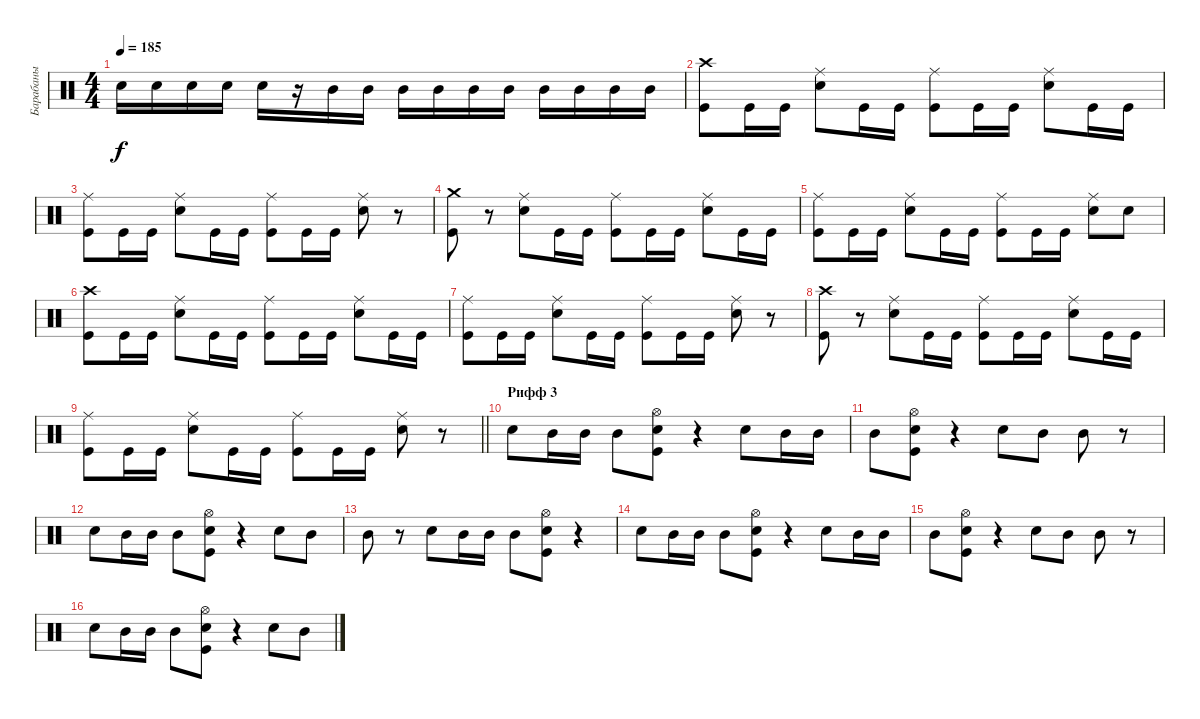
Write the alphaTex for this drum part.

\track ("Барабаны" "Барабаны") {instrument percussion}
\staff {score}
\articulation defaults
\ts (4 4)
\tempo 185
\clef neutral
\ks c "Snare (hit) 2".16{dy f} "Snare (hit) 2".16 "Snare (hit) 2".16 "Snare (hit) 2".16 "Snare (hit) 2".16
r.16 "Mid Tom (hit)".16 "Mid Tom (hit)".16 "Mid Tom (hit)".16 "Mid Tom (hit)".16 "Mid Tom (hit)".16 "Mid Tom (hit)".16 "Mid Tom (hit)".16 "Mid Tom (hit)".16 "Mid Tom (hit)".16 "Mid Tom (hit)".16 |
("Kick (hit)" "Crash high (hit)").8 "Kick (hit)".16 "Kick (hit)".16 ("Snare (hit) 2" "Ride (middle)").8 "Kick (hit)".16 "Kick (hit)".16 ("Kick (hit)" "Ride (middle)").8 "Kick (hit)".16 "Kick (hit)".16 ("Snare (hit) 2" "Ride (middle)").8 "Kick (hit)".16 "Kick (hit)".16 |
("Kick (hit)" "Ride (middle)").8 "Kick (hit)".16 "Kick (hit)".16 ("Snare (hit) 2" "Ride (middle)").8 "Kick (hit)".16 "Kick (hit)".16 ("Kick (hit)" "Ride (middle)").8 "Kick (hit)".16 "Kick (hit)".16 ("Snare (hit) 2" "Ride (middle)").8 r.8 |
("Kick (hit)" "Crash medium (hit)").8 r.8 ("Snare (hit) 2" "Ride (middle)").8 "Kick (hit)".16 "Kick (hit)".16 ("Kick (hit)" "Ride (middle)").8 "Kick (hit)".16 "Kick (hit)".16 ("Snare (hit) 2" "Ride (middle)").8 "Kick (hit)".16 "Kick (hit)".16 |
("Kick (hit)" "Ride (middle)").8 "Kick (hit)".16 "Kick (hit)".16 ("Snare (hit) 2" "Ride (middle)").8 "Kick (hit)".16 "Kick (hit)".16 ("Kick (hit)" "Ride (middle)").8 "Kick (hit)".16 "Kick (hit)".16 ("Snare (hit) 2" "Ride (middle)").8 "Snare (hit) 2".8 |
("Kick (hit)" "Crash high (hit)").8 "Kick (hit)".16 "Kick (hit)".16 ("Snare (hit) 2" "Ride (middle)").8 "Kick (hit)".16 "Kick (hit)".16 ("Kick (hit)" "Ride (middle)").8 "Kick (hit)".16 "Kick (hit)".16 ("Snare (hit) 2" "Ride (middle)").8 "Kick (hit)".16 "Kick (hit)".16 |
("Kick (hit)" "Ride (middle)").8 "Kick (hit)".16 "Kick (hit)".16 ("Snare (hit) 2" "Ride (middle)").8 "Kick (hit)".16 "Kick (hit)".16 ("Kick (hit)" "Ride (middle)").8 "Kick (hit)".16 "Kick (hit)".16 ("Snare (hit) 2" "Ride (middle)").8 r.8 |
("Kick (hit)" "Crash high (hit)").8 r.8 ("Snare (hit) 2" "Ride (middle)").8 "Kick (hit)".16 "Kick (hit)".16 ("Kick (hit)" "Ride (middle)").8 "Kick (hit)".16 "Kick (hit)".16 ("Snare (hit) 2" "Ride (middle)").8 "Kick (hit)".16 "Kick (hit)".16 |
\barLineRight lightlight
("Kick (hit)" "Ride (middle)").8 "Kick (hit)".16 "Kick (hit)".16 ("Snare (hit) 2" "Ride (middle)").8 "Kick (hit)".16 "Kick (hit)".16 ("Kick (hit)" "Ride (middle)").8 "Kick (hit)".16 "Kick (hit)".16 ("Snare (hit) 2" "Ride (middle)").8 r.8 |
\section ("" "Рифф 3")
"Snare (hit) 2".8 "Mid Tom (hit)".16 "Mid Tom (hit)".16 "Mid Tom (hit)".8 ("Kick (hit)" "Snare (hit) 2" "Hi-Hat (open)").8 r.4 "Snare (hit) 2".8 "Mid Tom (hit)".16 "Mid Tom (hit)".16 |
"Mid Tom (hit)".8 ("Kick (hit)" "Snare (hit) 2" "Hi-Hat (open)").8 r.4 "Snare (hit) 2".8 "Mid Tom (hit)".8 "Mid Tom (hit)".8 r.8 |
"Snare (hit) 2".8 "Mid Tom (hit)".16 "Mid Tom (hit)".16 "Mid Tom (hit)".8 ("Kick (hit)" "Snare (hit) 2" "Hi-Hat (open)").8 r.4 "Snare (hit) 2".8 "Mid Tom (hit)".8 |
"Mid Tom (hit)".8 r.8 "Snare (hit) 2".8 "Mid Tom (hit)".16 "Mid Tom (hit)".16 "Mid Tom (hit)".8 ("Kick (hit)" "Snare (hit) 2" "Hi-Hat (open)").8 r.4 |
"Snare (hit) 2".8 "Mid Tom (hit)".16 "Mid Tom (hit)".16 "Mid Tom (hit)".8 ("Kick (hit)" "Snare (hit) 2" "Hi-Hat (open)").8 r.4 "Snare (hit) 2".8 "Mid Tom (hit)".16 "Mid Tom (hit)".16 |
"Mid Tom (hit)".8 ("Kick (hit)" "Snare (hit) 2" "Hi-Hat (open)").8 r.4 "Snare (hit) 2".8 "Mid Tom (hit)".8 "Mid Tom (hit)".8 r.8 |
"Snare (hit) 2".8 "Mid Tom (hit)".16 "Mid Tom (hit)".16 "Mid Tom (hit)".8 ("Kick (hit)" "Snare (hit) 2" "Hi-Hat (open)").8 r.4 "Snare (hit) 2".8 "Mid Tom (hit)".8
